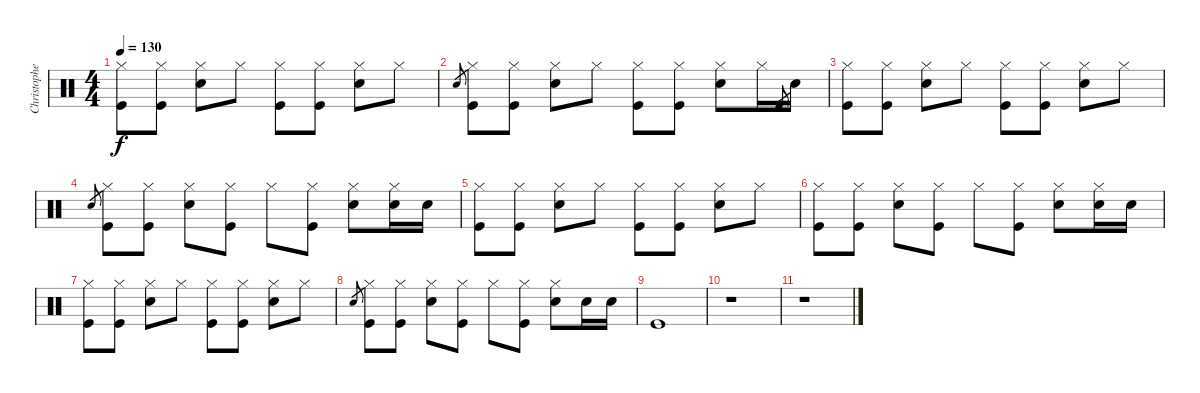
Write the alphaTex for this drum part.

\track ("Christopher - Drums" "Christophe") {instrument percussion}
\staff {score}
\articulation defaults
\ts (4 4)
\tempo 130
\clef neutral
\ks c
("Hi-Hat (closed)" "Kick (hit)").8{dy f} ("Hi-Hat (closed)" "Kick (hit)").8 ("Hi-Hat (closed)" "Snare (hit) 2").8 "Hi-Hat (closed)".8 ("Hi-Hat (closed)" "Kick (hit)").8 ("Hi-Hat (closed)" "Kick (hit)").8 ("Hi-Hat (closed)" "Snare (hit) 2").8 "Hi-Hat (closed)".8 |
"Snare (hit) 2".8{gr} ("Hi-Hat (closed)" "Kick (hit)").8 ("Hi-Hat (closed)" "Kick (hit)").8 ("Hi-Hat (closed)" "Snare (hit) 2").8 "Hi-Hat (closed)".8 ("Hi-Hat (closed)" "Kick (hit)").8 ("Hi-Hat (closed)" "Kick (hit)").8 ("Hi-Hat (closed)" "Snare (hit) 2").8 "Hi-Hat (closed)".16 "Kick (hit)".8{gr} "Snare (hit) 2".16 |
("Hi-Hat (closed)" "Kick (hit)").8 ("Hi-Hat (closed)" "Kick (hit)").8 ("Hi-Hat (closed)" "Snare (hit) 2").8 "Hi-Hat (closed)".8 ("Hi-Hat (closed)" "Kick (hit)").8 ("Hi-Hat (closed)" "Kick (hit)").8 ("Hi-Hat (closed)" "Snare (hit) 2").8 "Hi-Hat (closed)".8 |
"Snare (hit) 2".8{gr} ("Hi-Hat (closed)" "Kick (hit)").8 ("Hi-Hat (closed)" "Kick (hit)").8 ("Hi-Hat (closed)" "Snare (hit) 2").8 ("Hi-Hat (closed)" "Kick (hit)").8 "Hi-Hat (closed)".8 ("Hi-Hat (closed)" "Kick (hit)").8 ("Hi-Hat (closed)" "Snare (hit) 2").8 ("Hi-Hat (closed)" "Snare (hit) 2").16 "Snare (hit) 2".16 |
("Hi-Hat (closed)" "Kick (hit)").8 ("Hi-Hat (closed)" "Kick (hit)").8 ("Hi-Hat (closed)" "Snare (hit) 2").8 "Hi-Hat (closed)".8 ("Hi-Hat (closed)" "Kick (hit)").8 ("Hi-Hat (closed)" "Kick (hit)").8 ("Hi-Hat (closed)" "Snare (hit) 2").8 "Hi-Hat (closed)".8 |
("Hi-Hat (closed)" "Kick (hit)").8 ("Hi-Hat (closed)" "Kick (hit)").8 ("Hi-Hat (closed)" "Snare (hit) 2").8 ("Hi-Hat (closed)" "Kick (hit)").8 "Hi-Hat (closed)".8 ("Hi-Hat (closed)" "Kick (hit)").8 ("Hi-Hat (closed)" "Snare (hit) 2").8 ("Hi-Hat (closed)" "Snare (hit) 2").16 "Snare (hit) 2".16 |
("Hi-Hat (closed)" "Kick (hit)").8 ("Hi-Hat (closed)" "Kick (hit)").8 ("Hi-Hat (closed)" "Snare (hit) 2").8 "Hi-Hat (closed)".8 ("Hi-Hat (closed)" "Kick (hit)").8 ("Hi-Hat (closed)" "Kick (hit)").8 ("Hi-Hat (closed)" "Snare (hit) 2").8 "Hi-Hat (closed)".8 |
"Snare (hit) 2".8{gr} ("Hi-Hat (closed)" "Kick (hit)").8 ("Hi-Hat (closed)" "Kick (hit)").8 ("Hi-Hat (closed)" "Snare (hit) 2").8 ("Hi-Hat (closed)" "Kick (hit)").8 "Hi-Hat (closed)".8 ("Hi-Hat (closed)" "Kick (hit)").8 ("Hi-Hat (closed)" "Snare (hit) 2").8 "Snare (hit) 2".16 "Snare (hit) 2".16 |
"Kick (hit)".1 |
r.1 |
r.1
